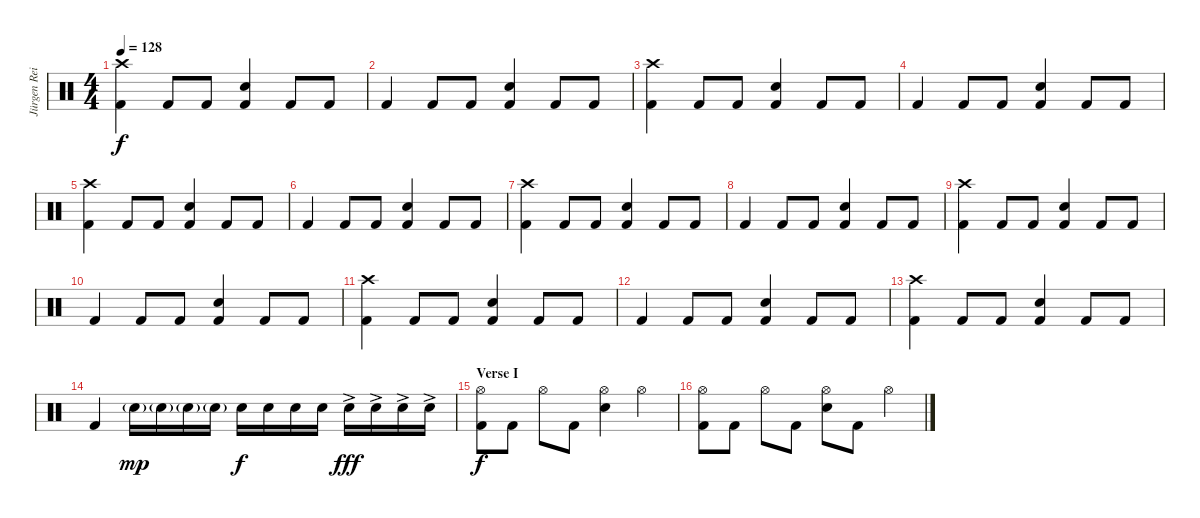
\track ("Jürgen Reil [drums]" "Jürgen Rei") {instrument percussion}
\staff {score}
\articulation defaults
\ts (4 4)
\tempo 128
\clef neutral
\ks c
("Crash high (hit)" "Kick (hit) 2").4{dy f} "Kick (hit) 2".8 "Kick (hit) 2".8 ("Electric Snare (hit)" "Kick (hit) 2").4 "Kick (hit) 2".8 "Kick (hit) 2".8 |
"Kick (hit) 2".4 "Kick (hit) 2".8 "Kick (hit) 2".8 ("Electric Snare (hit)" "Kick (hit) 2").4 "Kick (hit) 2".8 "Kick (hit) 2".8 |
("Crash high (hit)" "Kick (hit) 2").4 "Kick (hit) 2".8 "Kick (hit) 2".8 ("Electric Snare (hit)" "Kick (hit) 2").4 "Kick (hit) 2".8 "Kick (hit) 2".8 |
"Kick (hit) 2".4 "Kick (hit) 2".8 "Kick (hit) 2".8 ("Electric Snare (hit)" "Kick (hit) 2").4 "Kick (hit) 2".8 "Kick (hit) 2".8 |
("Crash high (hit)" "Kick (hit) 2").4 "Kick (hit) 2".8 "Kick (hit) 2".8 ("Electric Snare (hit)" "Kick (hit) 2").4 "Kick (hit) 2".8 "Kick (hit) 2".8 |
"Kick (hit) 2".4 "Kick (hit) 2".8 "Kick (hit) 2".8 ("Electric Snare (hit)" "Kick (hit) 2").4 "Kick (hit) 2".8 "Kick (hit) 2".8 |
("Crash high (hit)" "Kick (hit) 2").4 "Kick (hit) 2".8 "Kick (hit) 2".8 ("Electric Snare (hit)" "Kick (hit) 2").4 "Kick (hit) 2".8 "Kick (hit) 2".8 |
"Kick (hit) 2".4 "Kick (hit) 2".8 "Kick (hit) 2".8 ("Electric Snare (hit)" "Kick (hit) 2").4 "Kick (hit) 2".8 "Kick (hit) 2".8 |
("Crash high (hit)" "Kick (hit) 2").4 "Kick (hit) 2".8 "Kick (hit) 2".8 ("Electric Snare (hit)" "Kick (hit) 2").4 "Kick (hit) 2".8 "Kick (hit) 2".8 |
"Kick (hit) 2".4 "Kick (hit) 2".8 "Kick (hit) 2".8 ("Electric Snare (hit)" "Kick (hit) 2").4 "Kick (hit) 2".8 "Kick (hit) 2".8 |
("Crash high (hit)" "Kick (hit) 2").4 "Kick (hit) 2".8 "Kick (hit) 2".8 ("Electric Snare (hit)" "Kick (hit) 2").4 "Kick (hit) 2".8 "Kick (hit) 2".8 |
"Kick (hit) 2".4 "Kick (hit) 2".8 "Kick (hit) 2".8 ("Electric Snare (hit)" "Kick (hit) 2").4 "Kick (hit) 2".8 "Kick (hit) 2".8 |
("Crash high (hit)" "Kick (hit) 2").4 "Kick (hit) 2".8 "Kick (hit) 2".8 ("Electric Snare (hit)" "Kick (hit) 2").4 "Kick (hit) 2".8 "Kick (hit) 2".8 |
"Kick (hit) 2".4 "Electric Snare (hit)"{g}.16{dy mp} "Electric Snare (hit)"{g}.16 "Electric Snare (hit)"{g}.16 "Electric Snare (hit)"{g}.16 "Electric Snare (hit)".16{dy f} "Electric Snare (hit)".16 "Electric Snare (hit)".16 "Electric Snare (hit)".16 "Electric Snare (hit)"{ac}.16{dy fff} "Electric Snare (hit)"{ac}.16 "Electric Snare (hit)"{ac}.16 "Electric Snare (hit)"{ac}.16 |
\section ("" "Verse I")
("Hi-Hat (open)" "Kick (hit) 2").8{dy f} "Kick (hit) 2".8 "Hi-Hat (open)".8 "Kick (hit) 2".8 ("Hi-Hat (open)" "Electric Snare (hit)").4 "Hi-Hat (open)".4 |
("Hi-Hat (open)" "Kick (hit) 2").8 "Kick (hit) 2".8 "Hi-Hat (open)".8 "Kick (hit) 2".8 ("Hi-Hat (open)" "Electric Snare (hit)").8 "Kick (hit) 2".8 "Hi-Hat (open)".4
